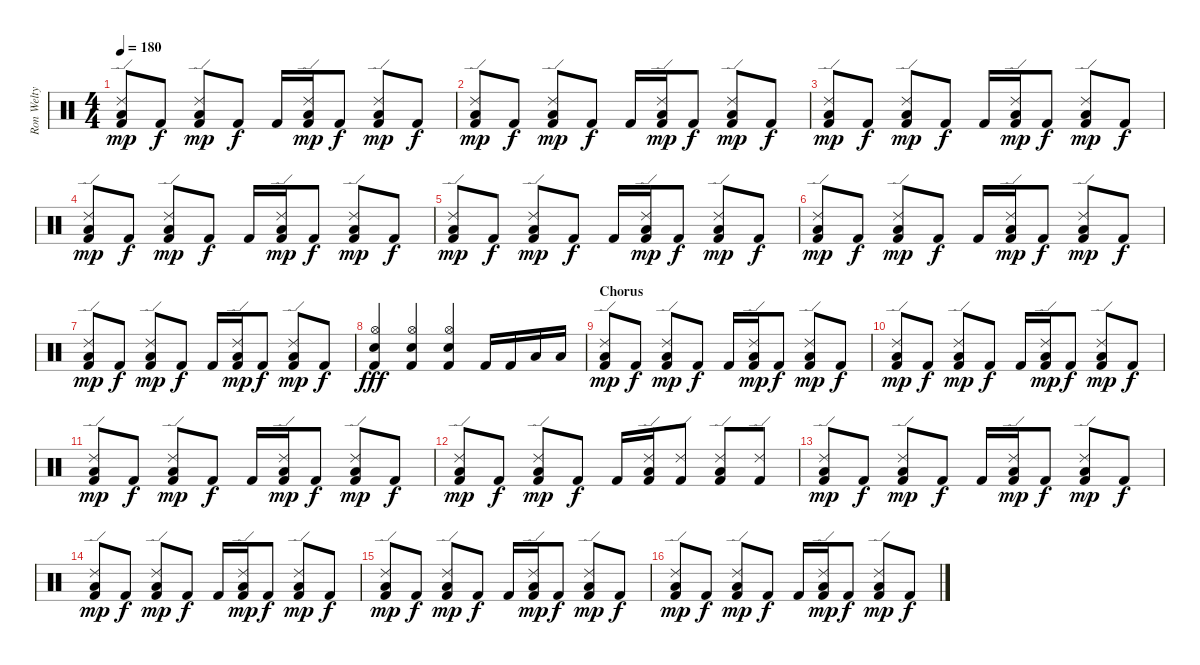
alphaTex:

\track ("Ron Welty" "Ron Welty") {instrument percussion}
\staff {score}
\articulation defaults
\ts (4 4)
\tempo 180
\clef neutral
\ks c
("Ride (edge) 2" "Low Tom (hit)" "Kick (hit) 2").8{dy mp} "Kick (hit) 2".8{dy f} ("Ride (edge) 2" "Low Tom (hit)" "Kick (hit) 2").8{dy mp} "Kick (hit) 2".8{dy f} "Kick (hit) 2".16 ("Ride (edge) 2" "Low Tom (hit)" "Kick (hit) 2").16{dy mp} "Kick (hit) 2".8{dy f} ("Ride (edge) 2" "Low Tom (hit)" "Kick (hit) 2").8{dy mp} "Kick (hit) 2".8{dy f} |
("Ride (edge) 2" "Low Tom (hit)" "Kick (hit) 2").8{dy mp} "Kick (hit) 2".8{dy f} ("Ride (edge) 2" "Low Tom (hit)" "Kick (hit) 2").8{dy mp} "Kick (hit) 2".8{dy f} "Kick (hit) 2".16 ("Ride (edge) 2" "Low Tom (hit)" "Kick (hit) 2").16{dy mp} "Kick (hit) 2".8{dy f} ("Ride (edge) 2" "Low Tom (hit)" "Kick (hit) 2").8{dy mp} "Kick (hit) 2".8{dy f} |
("Ride (edge) 2" "Low Tom (hit)" "Kick (hit) 2").8{dy mp} "Kick (hit) 2".8{dy f} ("Ride (edge) 2" "Low Tom (hit)" "Kick (hit) 2").8{dy mp} "Kick (hit) 2".8{dy f} "Kick (hit) 2".16 ("Ride (edge) 2" "Low Tom (hit)" "Kick (hit) 2").16{dy mp} "Kick (hit) 2".8{dy f} ("Ride (edge) 2" "Low Tom (hit)" "Kick (hit) 2").8{dy mp} "Kick (hit) 2".8{dy f} |
("Ride (edge) 2" "Low Tom (hit)" "Kick (hit) 2").8{dy mp} "Kick (hit) 2".8{dy f} ("Ride (edge) 2" "Low Tom (hit)" "Kick (hit) 2").8{dy mp} "Kick (hit) 2".8{dy f} "Kick (hit) 2".16 ("Ride (edge) 2" "Low Tom (hit)" "Kick (hit) 2").16{dy mp} "Kick (hit) 2".8{dy f} ("Ride (edge) 2" "Low Tom (hit)" "Kick (hit) 2").8{dy mp} "Kick (hit) 2".8{dy f} |
("Ride (edge) 2" "Low Tom (hit)" "Kick (hit) 2").8{dy mp} "Kick (hit) 2".8{dy f} ("Ride (edge) 2" "Low Tom (hit)" "Kick (hit) 2").8{dy mp} "Kick (hit) 2".8{dy f} "Kick (hit) 2".16 ("Ride (edge) 2" "Low Tom (hit)" "Kick (hit) 2").16{dy mp} "Kick (hit) 2".8{dy f} ("Ride (edge) 2" "Low Tom (hit)" "Kick (hit) 2").8{dy mp} "Kick (hit) 2".8{dy f} |
("Ride (edge) 2" "Low Tom (hit)" "Kick (hit) 2").8{dy mp} "Kick (hit) 2".8{dy f} ("Ride (edge) 2" "Low Tom (hit)" "Kick (hit) 2").8{dy mp} "Kick (hit) 2".8{dy f} "Kick (hit) 2".16 ("Ride (edge) 2" "Low Tom (hit)" "Kick (hit) 2").16{dy mp} "Kick (hit) 2".8{dy f} ("Ride (edge) 2" "Low Tom (hit)" "Kick (hit) 2").8{dy mp} "Kick (hit) 2".8{dy f} |
("Ride (edge) 2" "Low Tom (hit)" "Kick (hit) 2").8{dy mp} "Kick (hit) 2".8{dy f} ("Ride (edge) 2" "Low Tom (hit)" "Kick (hit) 2").8{dy mp} "Kick (hit) 2".8{dy f} "Kick (hit) 2".16 ("Ride (edge) 2" "Low Tom (hit)" "Kick (hit) 2").16{dy mp} "Kick (hit) 2".8{dy f} ("Ride (edge) 2" "Low Tom (hit)" "Kick (hit) 2").8{dy mp} "Kick (hit) 2".8{dy f} |
("Hi-Hat (open)" "Electric Snare (hit)" "Kick (hit) 2").4{dy fff} ("Hi-Hat (open)" "Electric Snare (hit)" "Kick (hit) 2").4 ("Hi-Hat (open)" "Electric Snare (hit)" "Kick (hit) 2").4 "Kick (hit) 2".16 "Kick (hit) 2".16 "Low Floor Tom (hit)".16 "Low Tom (hit)".16 |
\section ("" "Chorus")
("Ride (edge) 2" "Low Tom (hit)" "Kick (hit) 2").8{dy mp} "Kick (hit) 2".8{dy f} ("Ride (edge) 2" "Low Tom (hit)" "Kick (hit) 2").8{dy mp} "Kick (hit) 2".8{dy f} "Kick (hit) 2".16 ("Ride (edge) 2" "Low Tom (hit)" "Kick (hit) 2").16{dy mp} "Kick (hit) 2".8{dy f} ("Ride (edge) 2" "Low Tom (hit)" "Kick (hit) 2").8{dy mp} "Kick (hit) 2".8{dy f} |
("Ride (edge) 2" "Low Tom (hit)" "Kick (hit) 2").8{dy mp} "Kick (hit) 2".8{dy f} ("Ride (edge) 2" "Low Tom (hit)" "Kick (hit) 2").8{dy mp} "Kick (hit) 2".8{dy f} "Kick (hit) 2".16 ("Ride (edge) 2" "Low Tom (hit)" "Kick (hit) 2").16{dy mp} "Kick (hit) 2".8{dy f} ("Ride (edge) 2" "Low Tom (hit)" "Kick (hit) 2").8{dy mp} "Kick (hit) 2".8{dy f} |
("Ride (edge) 2" "Low Tom (hit)" "Kick (hit) 2").8{dy mp} "Kick (hit) 2".8{dy f} ("Ride (edge) 2" "Low Tom (hit)" "Kick (hit) 2").8{dy mp} "Kick (hit) 2".8{dy f} "Kick (hit) 2".16 ("Ride (edge) 2" "Low Tom (hit)" "Kick (hit) 2").16{dy mp} "Kick (hit) 2".8{dy f} ("Ride (edge) 2" "Low Tom (hit)" "Kick (hit) 2").8{dy mp} "Kick (hit) 2".8{dy f} |
("Ride (edge) 2" "Low Tom (hit)" "Kick (hit) 2").8{dy mp} "Kick (hit) 2".8{dy f} ("Ride (edge) 2" "Low Tom (hit)" "Kick (hit) 2").8{dy mp} "Kick (hit) 2".8{dy f} "Kick (hit) 2".16 ("Ride (edge) 2" "Low Tom (hit)" "Kick (hit) 2").16 ("Ride (edge) 2" "Kick (hit) 2").8 ("Ride (edge) 2" "Low Tom (hit)" "Kick (hit) 2").8 ("Ride (edge) 2" "Kick (hit) 2").8 |
("Ride (edge) 2" "Low Tom (hit)" "Kick (hit) 2").8{dy mp} "Kick (hit) 2".8{dy f} ("Ride (edge) 2" "Low Tom (hit)" "Kick (hit) 2").8{dy mp} "Kick (hit) 2".8{dy f} "Kick (hit) 2".16 ("Ride (edge) 2" "Low Tom (hit)" "Kick (hit) 2").16{dy mp} "Kick (hit) 2".8{dy f} ("Ride (edge) 2" "Low Tom (hit)" "Kick (hit) 2").8{dy mp} "Kick (hit) 2".8{dy f} |
("Ride (edge) 2" "Low Tom (hit)" "Kick (hit) 2").8{dy mp} "Kick (hit) 2".8{dy f} ("Ride (edge) 2" "Low Tom (hit)" "Kick (hit) 2").8{dy mp} "Kick (hit) 2".8{dy f} "Kick (hit) 2".16 ("Ride (edge) 2" "Low Tom (hit)" "Kick (hit) 2").16{dy mp} "Kick (hit) 2".8{dy f} ("Ride (edge) 2" "Low Tom (hit)" "Kick (hit) 2").8{dy mp} "Kick (hit) 2".8{dy f} |
("Ride (edge) 2" "Low Tom (hit)" "Kick (hit) 2").8{dy mp} "Kick (hit) 2".8{dy f} ("Ride (edge) 2" "Low Tom (hit)" "Kick (hit) 2").8{dy mp} "Kick (hit) 2".8{dy f} "Kick (hit) 2".16 ("Ride (edge) 2" "Low Tom (hit)" "Kick (hit) 2").16{dy mp} "Kick (hit) 2".8{dy f} ("Ride (edge) 2" "Low Tom (hit)" "Kick (hit) 2").8{dy mp} "Kick (hit) 2".8{dy f} |
("Ride (edge) 2" "Low Tom (hit)" "Kick (hit) 2").8{dy mp} "Kick (hit) 2".8{dy f} ("Ride (edge) 2" "Low Tom (hit)" "Kick (hit) 2").8{dy mp} "Kick (hit) 2".8{dy f} "Kick (hit) 2".16 ("Ride (edge) 2" "Low Tom (hit)" "Kick (hit) 2").16{dy mp} "Kick (hit) 2".8{dy f} ("Ride (edge) 2" "Low Tom (hit)" "Kick (hit) 2").8{dy mp} "Kick (hit) 2".8{dy f}
